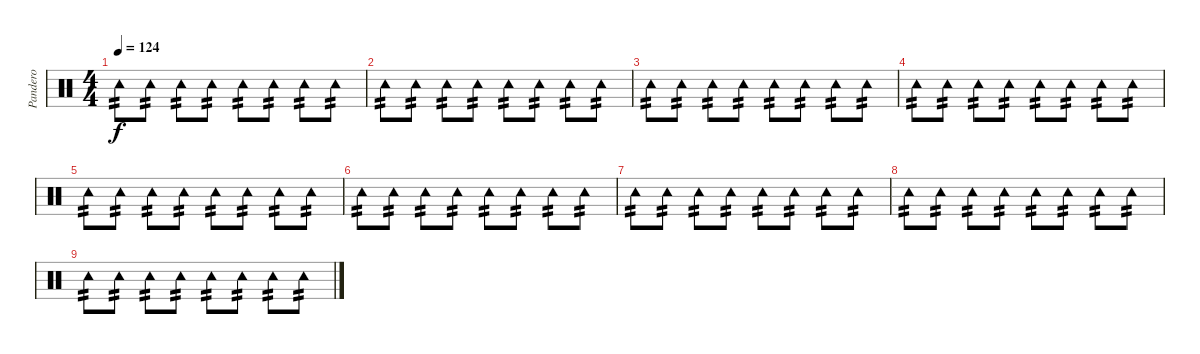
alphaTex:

\track ("Pandero" "Pandero") {instrument percussion}
\staff {score}
\articulation defaults
\ts (4 4)
\tempo 124
\clef neutral
\ks c "Tambourine (hit)".8{tp 2 dy f} "Tambourine (hit)".8{tp 2} "Tambourine (hit)".8{tp 2} "Tambourine (hit)".8{tp 2} "Tambourine (hit)".8{tp 2} "Tambourine (hit)".8{tp 2} "Tambourine (hit)".8{tp 2} "Tambourine (hit)".8{tp 2}
|
"Tambourine (hit)".8{tp 2} "Tambourine (hit)".8{tp 2} "Tambourine (hit)".8{tp 2} "Tambourine (hit)".8{tp 2} "Tambourine (hit)".8{tp 2} "Tambourine (hit)".8{tp 2} "Tambourine (hit)".8{tp 2} "Tambourine (hit)".8{tp 2} |
"Tambourine (hit)".8{tp 2} "Tambourine (hit)".8{tp 2} "Tambourine (hit)".8{tp 2} "Tambourine (hit)".8{tp 2} "Tambourine (hit)".8{tp 2} "Tambourine (hit)".8{tp 2} "Tambourine (hit)".8{tp 2} "Tambourine (hit)".8{tp 2} |
"Tambourine (hit)".8{tp 2} "Tambourine (hit)".8{tp 2} "Tambourine (hit)".8{tp 2} "Tambourine (hit)".8{tp 2} "Tambourine (hit)".8{tp 2} "Tambourine (hit)".8{tp 2} "Tambourine (hit)".8{tp 2} "Tambourine (hit)".8{tp 2} |
"Tambourine (hit)".8{tp 2} "Tambourine (hit)".8{tp 2} "Tambourine (hit)".8{tp 2} "Tambourine (hit)".8{tp 2} "Tambourine (hit)".8{tp 2} "Tambourine (hit)".8{tp 2} "Tambourine (hit)".8{tp 2} "Tambourine (hit)".8{tp 2} |
"Tambourine (hit)".8{tp 2} "Tambourine (hit)".8{tp 2} "Tambourine (hit)".8{tp 2} "Tambourine (hit)".8{tp 2} "Tambourine (hit)".8{tp 2} "Tambourine (hit)".8{tp 2} "Tambourine (hit)".8{tp 2} "Tambourine (hit)".8{tp 2} |
"Tambourine (hit)".8{tp 2} "Tambourine (hit)".8{tp 2} "Tambourine (hit)".8{tp 2} "Tambourine (hit)".8{tp 2} "Tambourine (hit)".8{tp 2} "Tambourine (hit)".8{tp 2} "Tambourine (hit)".8{tp 2} "Tambourine (hit)".8{tp 2} |
"Tambourine (hit)".8{tp 2} "Tambourine (hit)".8{tp 2} "Tambourine (hit)".8{tp 2} "Tambourine (hit)".8{tp 2} "Tambourine (hit)".8{tp 2} "Tambourine (hit)".8{tp 2} "Tambourine (hit)".8{tp 2} "Tambourine (hit)".8{tp 2} |
"Tambourine (hit)".8{tp 2} "Tambourine (hit)".8{tp 2} "Tambourine (hit)".8{tp 2} "Tambourine (hit)".8{tp 2} "Tambourine (hit)".8{tp 2} "Tambourine (hit)".8{tp 2} "Tambourine (hit)".8{tp 2} "Tambourine (hit)".8{tp 2}
